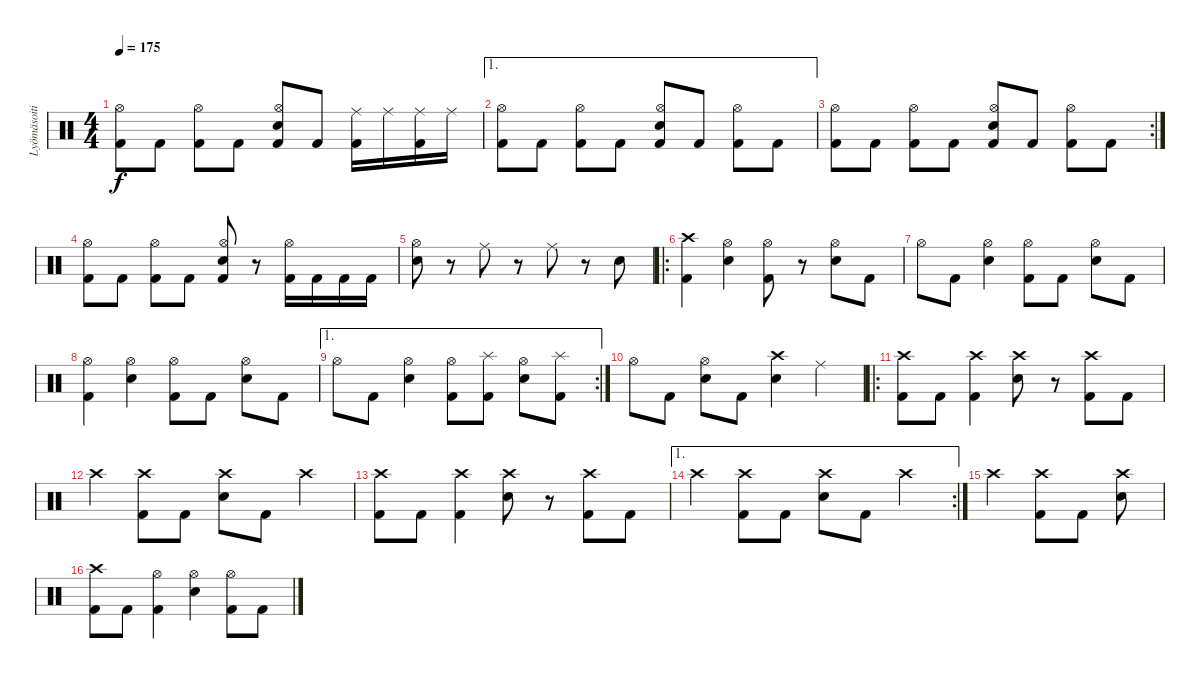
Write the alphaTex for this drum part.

\track ("Lyömäsoitin" "Lyömäsoiti") {instrument percussion}
\staff {score}
\articulation defaults
\ts (4 4)
\tempo 175
\clef neutral
\ks c
("Kick (hit) 2" "Hi-Hat (open)").8{dy f} "Kick (hit) 2".8 ("Kick (hit) 2" "Hi-Hat (open)").8 "Kick (hit) 2".8 ("Kick (hit) 2" "Electric Snare (hit)" "Hi-Hat (open)").8 "Kick (hit) 2".8 ("Kick (hit) 2" "Ride (middle)").16 "Ride (middle)".16 ("Kick (hit) 2" "Ride (middle)").16 "Ride (middle)".16 |
\ae 1
("Kick (hit) 2" "Hi-Hat (open)").8 "Kick (hit) 2".8 ("Kick (hit) 2" "Hi-Hat (open)").8 "Kick (hit) 2".8 ("Kick (hit) 2" "Electric Snare (hit)" "Hi-Hat (open)").8 "Kick (hit) 2".8 ("Kick (hit) 2" "Hi-Hat (open)").8 "Kick (hit) 2".8 |
\rc 2
("Kick (hit) 2" "Hi-Hat (open)").8 "Kick (hit) 2".8 ("Kick (hit) 2" "Hi-Hat (open)").8 "Kick (hit) 2".8 ("Kick (hit) 2" "Electric Snare (hit)" "Hi-Hat (open)").8 "Kick (hit) 2".8 ("Kick (hit) 2" "Hi-Hat (open)").8 "Kick (hit) 2".8 |
("Kick (hit) 2" "Hi-Hat (open)").8 "Kick (hit) 2".8 ("Kick (hit) 2" "Hi-Hat (open)").8 "Kick (hit) 2".8 ("Kick (hit) 2" "Electric Snare (hit)" "Hi-Hat (open)").8 r.8 ("Kick (hit) 2" "Hi-Hat (open)").16 "Kick (hit) 2".16 "Kick (hit) 2".16 "Kick (hit) 2".16 |
("Electric Snare (hit)" "Hi-Hat (open)").8 r.8 "Ride (middle)".8 r.8 "Ride (middle)".8 r.8 "Electric Snare (hit)".8 |
\ro
("Kick (hit) 2" "Crash high (hit)").4 ("Electric Snare (hit)" "Hi-Hat (open)").4 ("Kick (hit) 2" "Hi-Hat (open)").8 r.8 ("Electric Snare (hit)" "Hi-Hat (open)").8 "Kick (hit) 2".8 |
"Hi-Hat (open)".8 "Kick (hit) 2".8 ("Electric Snare (hit)" "Hi-Hat (open)").4 ("Kick (hit) 2" "Hi-Hat (open)").8 "Kick (hit) 2".8 ("Electric Snare (hit)" "Hi-Hat (open)").8 "Kick (hit) 2".8 |
("Kick (hit) 2" "Hi-Hat (open)").4 ("Electric Snare (hit)" "Hi-Hat (open)").4 ("Kick (hit) 2" "Hi-Hat (open)").8 "Kick (hit) 2".8 ("Electric Snare (hit)" "Hi-Hat (open)").8 "Kick (hit) 2".8 |
\ae 1
\rc 2 "Hi-Hat (open)".8 "Kick (hit) 2".8
("Electric Snare (hit)" "Hi-Hat (open)").4 ("Kick (hit) 2" "Hi-Hat (open)").8 ("Kick (hit) 2" "Splash (hit)").8 ("Electric Snare (hit)" "Hi-Hat (open)").8 ("Kick (hit) 2" "Splash (hit)").8 |
"Hi-Hat (open)".8 "Kick (hit) 2".8 ("Electric Snare (hit)" "Hi-Hat (open)").8 "Kick (hit) 2".8 ("Electric Snare (hit)" "Crash high (hit)").4 "Ride (middle)".4 |
\ro
("Kick (hit) 2" "Crash high (hit)").8 "Kick (hit) 2".8 ("Kick (hit) 2" "Crash high (hit)").4 ("Electric Snare (hit)" "Crash high (hit)").8 r.8 ("Kick (hit) 2" "Crash high (hit)").8 "Kick (hit) 2".8 |
"Crash high (hit)".4 ("Kick (hit) 2" "Crash high (hit)").8 "Kick (hit) 2".8 ("Electric Snare (hit)" "Crash high (hit)").8 "Kick (hit) 2".8 "Crash high (hit)".4 |
("Kick (hit) 2" "Crash high (hit)").8 "Kick (hit) 2".8 ("Kick (hit) 2" "Crash high (hit)").4 ("Electric Snare (hit)" "Crash high (hit)").8 r.8 ("Kick (hit) 2" "Crash high (hit)").8 "Kick (hit) 2".8 |
\ae 1
\rc 2 "Crash high (hit)".4
("Kick (hit) 2" "Crash high (hit)").8 "Kick (hit) 2".8 ("Electric Snare (hit)" "Crash high (hit)").8 "Kick (hit) 2".8 "Crash high (hit)".4 |
"Crash high (hit)".4 ("Kick (hit) 2" "Crash high (hit)").8 "Kick (hit) 2".8 ("Electric Snare (hit)" "Crash high (hit)").8 |
("Kick (hit) 2" "Crash high (hit)").8 "Kick (hit) 2".8 ("Kick (hit) 2" "Hi-Hat (open)").4 ("Electric Snare (hit)" "Hi-Hat (open)").4 ("Kick (hit) 2" "Hi-Hat (open)").8 "Kick (hit) 2".8
